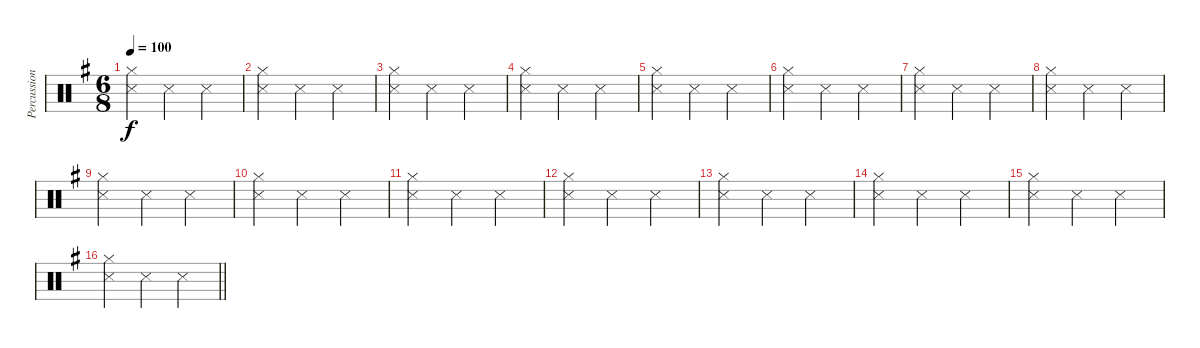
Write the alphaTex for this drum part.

\track ("Percussion" "Percussion") {mute instrument percussion}
\staff {score}
\articulation defaults
\ts (6 8)
\tempo 100
\clef neutral
\ks g
("Hi-Hat (closed)" "Snare (side stick) 3").4{dy f} "Snare (side stick) 3".4 "Snare (side stick) 3".4 |
("Hi-Hat (closed)" "Snare (side stick) 3").4 "Snare (side stick) 3".4 "Snare (side stick) 3".4 |
("Hi-Hat (closed)" "Snare (side stick) 3").4 "Snare (side stick) 3".4 "Snare (side stick) 3".4 |
("Hi-Hat (closed)" "Snare (side stick) 3").4 "Snare (side stick) 3".4 "Snare (side stick) 3".4 |
("Hi-Hat (closed)" "Snare (side stick) 3").4 "Snare (side stick) 3".4 "Snare (side stick) 3".4 |
("Hi-Hat (closed)" "Snare (side stick) 3").4 "Snare (side stick) 3".4 "Snare (side stick) 3".4 |
("Hi-Hat (closed)" "Snare (side stick) 3").4 "Snare (side stick) 3".4 "Snare (side stick) 3".4 |
("Hi-Hat (closed)" "Snare (side stick) 3").4 "Snare (side stick) 3".4 "Snare (side stick) 3".4 |
("Hi-Hat (closed)" "Snare (side stick) 3").4 "Snare (side stick) 3".4 "Snare (side stick) 3".4 |
("Hi-Hat (closed)" "Snare (side stick) 3").4 "Snare (side stick) 3".4 "Snare (side stick) 3".4 |
("Hi-Hat (closed)" "Snare (side stick) 3").4 "Snare (side stick) 3".4 "Snare (side stick) 3".4 |
("Hi-Hat (closed)" "Snare (side stick) 3").4 "Snare (side stick) 3".4 "Snare (side stick) 3".4 |
("Hi-Hat (closed)" "Snare (side stick) 3").4 "Snare (side stick) 3".4 "Snare (side stick) 3".4 |
("Hi-Hat (closed)" "Snare (side stick) 3").4 "Snare (side stick) 3".4 "Snare (side stick) 3".4 |
("Hi-Hat (closed)" "Snare (side stick) 3").4 "Snare (side stick) 3".4 "Snare (side stick) 3".4 |
\barLineRight lightlight
("Hi-Hat (closed)" "Snare (side stick) 3").4 "Snare (side stick) 3".4 "Snare (side stick) 3".4
